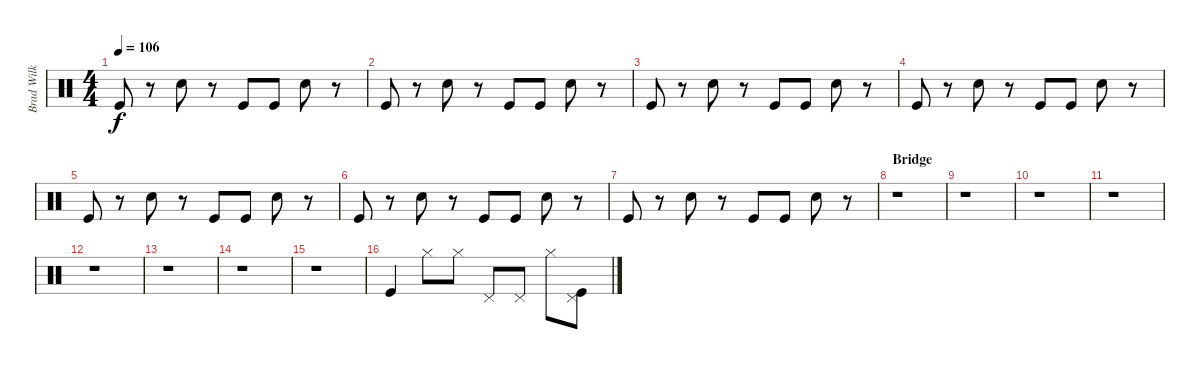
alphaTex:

\track ("Brad Wilk" "Brad Wilk") {instrument percussion}
\staff {score}
\articulation defaults
\ts (4 4)
\tempo 106
\clef neutral
\ks c "Kick (hit)".8{dy f}
r.8 "Electric Snare (hit)".8 r.8 "Kick (hit)".8 "Kick (hit)".8 "Electric Snare (hit)".8 r.8 |
"Kick (hit)".8 r.8 "Electric Snare (hit)".8 r.8 "Kick (hit)".8 "Kick (hit)".8 "Electric Snare (hit)".8 r.8 |
"Kick (hit)".8 r.8 "Electric Snare (hit)".8 r.8 "Kick (hit)".8 "Kick (hit)".8 "Electric Snare (hit)".8 r.8 |
"Kick (hit)".8 r.8 "Electric Snare (hit)".8 r.8 "Kick (hit)".8 "Kick (hit)".8 "Electric Snare (hit)".8 r.8 |
"Kick (hit)".8 r.8 "Electric Snare (hit)".8 r.8 "Kick (hit)".8 "Kick (hit)".8 "Electric Snare (hit)".8 r.8 |
"Kick (hit)".8 r.8 "Electric Snare (hit)".8 r.8 "Kick (hit)".8 "Kick (hit)".8 "Electric Snare (hit)".8 r.8 |
"Kick (hit)".8 r.8 "Electric Snare (hit)".8 r.8 "Kick (hit)".8 "Kick (hit)".8 "Electric Snare (hit)".8 r.8 |
\section ("" "Bridge")
r.1 |
r.1 |
r.1 |
r.1 |
r.1 |
r.1 |
r.1 |
r.1 |
"Kick (hit)".4 "Hi-Hat (closed)".8 "Hi-Hat (closed)".8 "Pedal Hi-Hat (hit)".8 "Pedal Hi-Hat (hit)".8 "Hi-Hat (closed)".8 ("Pedal Hi-Hat (hit)" "Kick (hit)").8
